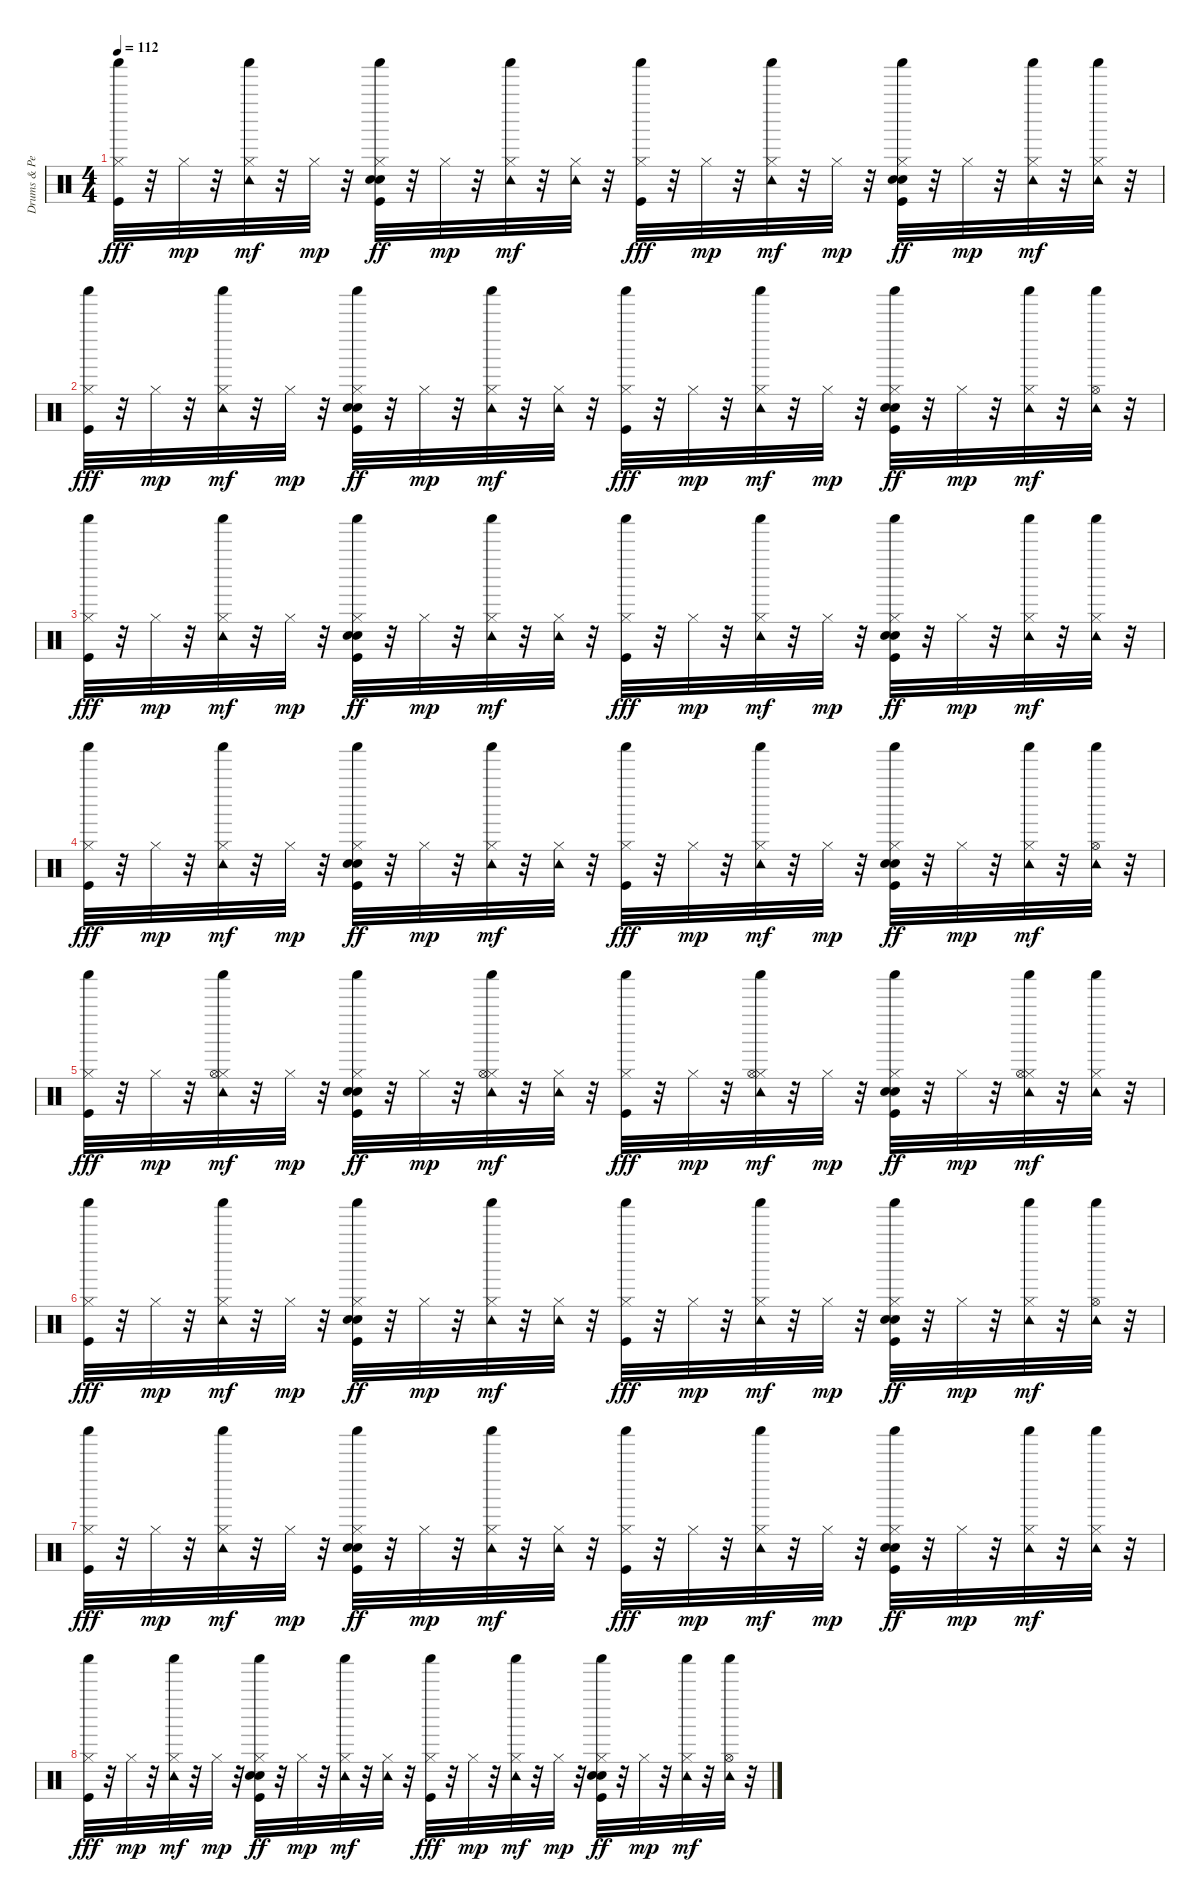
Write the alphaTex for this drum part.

\track ("Drums & Percussion" "Drums & Pe") {instrument percussion}
\staff {score}
\articulation defaults
\ts (4 4)
\tempo 112
\clef neutral
\ks c
("Shaker (hit)" "Hi-Hat (closed)" "Kick (hit)").32{dy fff} r.32 "Hi-Hat (closed)".32{dy mp} r.32 ("Shaker (hit)" "Hi-Hat (closed)" "Tambourine (hit)").32{dy mf} r.32 "Hi-Hat (closed)".32{dy mp} r.32 ("Shaker (hit)" "Snare (hit) 2" "Hi-Hat (closed)" "Hand Clap (hit)" "Kick (hit)").32{dy ff} r.32 "Hi-Hat (closed)".32{dy mp} r.32 ("Shaker (hit)" "Hi-Hat (closed)" "Tambourine (hit)").32{dy mf} r.32 ("Hi-Hat (closed)" "Tambourine (hit)").32 r.32 ("Shaker (hit)" "Hi-Hat (closed)" "Kick (hit)").32{dy fff} r.32 "Hi-Hat (closed)".32{dy mp} r.32 ("Shaker (hit)" "Hi-Hat (closed)" "Tambourine (hit)").32{dy mf} r.32 "Hi-Hat (closed)".32{dy mp} r.32 ("Shaker (hit)" "Snare (hit) 2" "Hi-Hat (closed)" "Hand Clap (hit)" "Kick (hit)").32{dy ff} r.32 "Hi-Hat (closed)".32{dy mp} r.32 ("Shaker (hit)" "Hi-Hat (closed)" "Tambourine (hit)").32{dy mf} r.32 ("Shaker (hit)" "Hi-Hat (closed)" "Tambourine (hit)").32 r.32 |
("Shaker (hit)" "Hi-Hat (closed)" "Kick (hit)").32{dy fff} r.32 "Hi-Hat (closed)".32{dy mp} r.32 ("Shaker (hit)" "Hi-Hat (closed)" "Tambourine (hit)").32{dy mf} r.32 "Hi-Hat (closed)".32{dy mp} r.32 ("Shaker (hit)" "Snare (hit) 2" "Hi-Hat (closed)" "Hand Clap (hit)" "Kick (hit)").32{dy ff} r.32 "Hi-Hat (closed)".32{dy mp} r.32 ("Shaker (hit)" "Hi-Hat (closed)" "Tambourine (hit)").32{dy mf} r.32 ("Hi-Hat (closed)" "Tambourine (hit)").32 r.32 ("Shaker (hit)" "Hi-Hat (closed)" "Kick (hit)").32{dy fff} r.32 "Hi-Hat (closed)".32{dy mp} r.32 ("Shaker (hit)" "Hi-Hat (closed)" "Tambourine (hit)").32{dy mf} r.32 "Hi-Hat (closed)".32{dy mp} r.32 ("Shaker (hit)" "Snare (hit) 2" "Hi-Hat (closed)" "Hand Clap (hit)" "Kick (hit)").32{dy ff} r.32 "Hi-Hat (closed)".32{dy mp} r.32 ("Shaker (hit)" "Hi-Hat (closed)" "Tambourine (hit)").32{dy mf} r.32 ("Hi-Hat (open)" "Shaker (hit)" "Tambourine (hit)").32 r.32 |
("Shaker (hit)" "Hi-Hat (closed)" "Kick (hit)").32{dy fff} r.32 "Hi-Hat (closed)".32{dy mp} r.32 ("Shaker (hit)" "Hi-Hat (closed)" "Tambourine (hit)").32{dy mf} r.32 "Hi-Hat (closed)".32{dy mp} r.32 ("Shaker (hit)" "Snare (hit) 2" "Hi-Hat (closed)" "Hand Clap (hit)" "Kick (hit)").32{dy ff} r.32 "Hi-Hat (closed)".32{dy mp} r.32 ("Shaker (hit)" "Hi-Hat (closed)" "Tambourine (hit)").32{dy mf} r.32 ("Hi-Hat (closed)" "Tambourine (hit)").32 r.32 ("Shaker (hit)" "Hi-Hat (closed)" "Kick (hit)").32{dy fff} r.32 "Hi-Hat (closed)".32{dy mp} r.32 ("Shaker (hit)" "Hi-Hat (closed)" "Tambourine (hit)").32{dy mf} r.32 "Hi-Hat (closed)".32{dy mp} r.32 ("Shaker (hit)" "Snare (hit) 2" "Hi-Hat (closed)" "Hand Clap (hit)" "Kick (hit)").32{dy ff} r.32 "Hi-Hat (closed)".32{dy mp} r.32 ("Shaker (hit)" "Hi-Hat (closed)" "Tambourine (hit)").32{dy mf} r.32 ("Shaker (hit)" "Hi-Hat (closed)" "Tambourine (hit)").32 r.32 |
("Shaker (hit)" "Hi-Hat (closed)" "Kick (hit)").32{dy fff} r.32 "Hi-Hat (closed)".32{dy mp} r.32 ("Shaker (hit)" "Hi-Hat (closed)" "Tambourine (hit)").32{dy mf} r.32 "Hi-Hat (closed)".32{dy mp} r.32 ("Shaker (hit)" "Snare (hit) 2" "Hi-Hat (closed)" "Hand Clap (hit)" "Kick (hit)").32{dy ff} r.32 "Hi-Hat (closed)".32{dy mp} r.32 ("Shaker (hit)" "Hi-Hat (closed)" "Tambourine (hit)").32{dy mf} r.32 ("Hi-Hat (closed)" "Tambourine (hit)").32 r.32 ("Shaker (hit)" "Hi-Hat (closed)" "Kick (hit)").32{dy fff} r.32 "Hi-Hat (closed)".32{dy mp} r.32 ("Shaker (hit)" "Hi-Hat (closed)" "Tambourine (hit)").32{dy mf} r.32 "Hi-Hat (closed)".32{dy mp} r.32 ("Shaker (hit)" "Snare (hit) 2" "Hi-Hat (closed)" "Hand Clap (hit)" "Kick (hit)").32{dy ff} r.32 "Hi-Hat (closed)".32{dy mp} r.32 ("Shaker (hit)" "Hi-Hat (closed)" "Tambourine (hit)").32{dy mf} r.32 ("Hi-Hat (open)" "Shaker (hit)" "Tambourine (hit)").32 r.32 |
("Shaker (hit)" "Hi-Hat (closed)" "Kick (hit)").32{dy fff} r.32 "Hi-Hat (closed)".32{dy mp} r.32 ("Shaker (hit)" "Hi-Hat (closed)" "Hi-Hat (open)" "Tambourine (hit)").32{dy mf} r.32 "Hi-Hat (closed)".32{dy mp} r.32 ("Shaker (hit)" "Snare (hit) 2" "Hi-Hat (closed)" "Hand Clap (hit)" "Kick (hit)").32{dy ff} r.32 "Hi-Hat (closed)".32{dy mp} r.32 ("Shaker (hit)" "Hi-Hat (closed)" "Hi-Hat (open)" "Tambourine (hit)").32{dy mf} r.32 ("Hi-Hat (closed)" "Tambourine (hit)").32 r.32 ("Shaker (hit)" "Hi-Hat (closed)" "Kick (hit)").32{dy fff} r.32 "Hi-Hat (closed)".32{dy mp} r.32 ("Shaker (hit)" "Hi-Hat (closed)" "Hi-Hat (open)" "Tambourine (hit)").32{dy mf} r.32 "Hi-Hat (closed)".32{dy mp} r.32 ("Shaker (hit)" "Snare (hit) 2" "Hi-Hat (closed)" "Hand Clap (hit)" "Kick (hit)").32{dy ff} r.32 "Hi-Hat (closed)".32{dy mp} r.32 ("Shaker (hit)" "Hi-Hat (closed)" "Hi-Hat (open)" "Tambourine (hit)").32{dy mf} r.32 ("Shaker (hit)" "Hi-Hat (closed)" "Tambourine (hit)").32 r.32 |
("Shaker (hit)" "Hi-Hat (closed)" "Kick (hit)").32{dy fff} r.32 "Hi-Hat (closed)".32{dy mp} r.32 ("Shaker (hit)" "Hi-Hat (closed)" "Tambourine (hit)").32{dy mf} r.32 "Hi-Hat (closed)".32{dy mp} r.32 ("Shaker (hit)" "Snare (hit) 2" "Hi-Hat (closed)" "Hand Clap (hit)" "Kick (hit)").32{dy ff} r.32 "Hi-Hat (closed)".32{dy mp} r.32 ("Shaker (hit)" "Hi-Hat (closed)" "Tambourine (hit)").32{dy mf} r.32 ("Hi-Hat (closed)" "Tambourine (hit)").32 r.32 ("Shaker (hit)" "Hi-Hat (closed)" "Kick (hit)").32{dy fff} r.32 "Hi-Hat (closed)".32{dy mp} r.32 ("Shaker (hit)" "Hi-Hat (closed)" "Tambourine (hit)").32{dy mf} r.32 "Hi-Hat (closed)".32{dy mp} r.32 ("Shaker (hit)" "Snare (hit) 2" "Hi-Hat (closed)" "Hand Clap (hit)" "Kick (hit)").32{dy ff} r.32 "Hi-Hat (closed)".32{dy mp} r.32 ("Shaker (hit)" "Hi-Hat (closed)" "Tambourine (hit)").32{dy mf} r.32 ("Hi-Hat (open)" "Shaker (hit)" "Tambourine (hit)").32 r.32 |
("Shaker (hit)" "Hi-Hat (closed)" "Kick (hit)").32{dy fff} r.32 "Hi-Hat (closed)".32{dy mp} r.32 ("Shaker (hit)" "Hi-Hat (closed)" "Tambourine (hit)").32{dy mf} r.32 "Hi-Hat (closed)".32{dy mp} r.32 ("Shaker (hit)" "Snare (hit) 2" "Hi-Hat (closed)" "Hand Clap (hit)" "Kick (hit)").32{dy ff} r.32 "Hi-Hat (closed)".32{dy mp} r.32 ("Shaker (hit)" "Hi-Hat (closed)" "Tambourine (hit)").32{dy mf} r.32 ("Hi-Hat (closed)" "Tambourine (hit)").32 r.32 ("Shaker (hit)" "Hi-Hat (closed)" "Kick (hit)").32{dy fff} r.32 "Hi-Hat (closed)".32{dy mp} r.32 ("Shaker (hit)" "Hi-Hat (closed)" "Tambourine (hit)").32{dy mf} r.32 "Hi-Hat (closed)".32{dy mp} r.32 ("Shaker (hit)" "Snare (hit) 2" "Hi-Hat (closed)" "Hand Clap (hit)" "Kick (hit)").32{dy ff} r.32 "Hi-Hat (closed)".32{dy mp} r.32 ("Shaker (hit)" "Hi-Hat (closed)" "Tambourine (hit)").32{dy mf} r.32 ("Shaker (hit)" "Hi-Hat (closed)" "Tambourine (hit)").32 r.32 |
("Shaker (hit)" "Hi-Hat (closed)" "Kick (hit)").32{dy fff} r.32 "Hi-Hat (closed)".32{dy mp} r.32 ("Shaker (hit)" "Hi-Hat (closed)" "Tambourine (hit)").32{dy mf} r.32 "Hi-Hat (closed)".32{dy mp} r.32 ("Shaker (hit)" "Snare (hit) 2" "Hi-Hat (closed)" "Hand Clap (hit)" "Kick (hit)").32{dy ff} r.32 "Hi-Hat (closed)".32{dy mp} r.32 ("Shaker (hit)" "Hi-Hat (closed)" "Tambourine (hit)").32{dy mf} r.32 ("Hi-Hat (closed)" "Tambourine (hit)").32 r.32 ("Shaker (hit)" "Hi-Hat (closed)" "Kick (hit)").32{dy fff} r.32 "Hi-Hat (closed)".32{dy mp} r.32 ("Shaker (hit)" "Hi-Hat (closed)" "Tambourine (hit)").32{dy mf} r.32 "Hi-Hat (closed)".32{dy mp} r.32 ("Shaker (hit)" "Snare (hit) 2" "Hi-Hat (closed)" "Hand Clap (hit)" "Kick (hit)").32{dy ff} r.32 "Hi-Hat (closed)".32{dy mp} r.32 ("Shaker (hit)" "Hi-Hat (closed)" "Tambourine (hit)").32{dy mf} r.32 ("Hi-Hat (open)" "Shaker (hit)" "Tambourine (hit)").32 r.32
